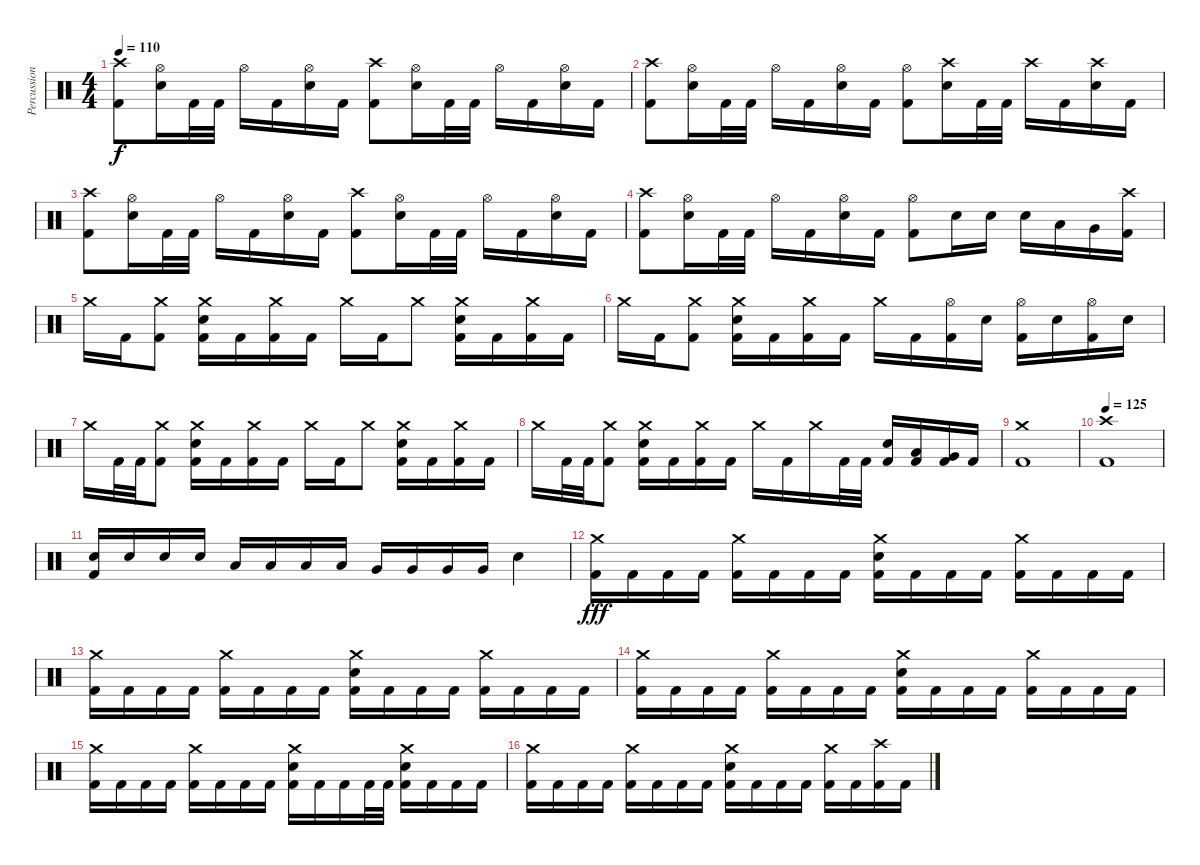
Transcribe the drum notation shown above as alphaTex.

\track ("Percussion" "Percussion") {instrument percussion}
\staff {score}
\articulation defaults
\ts (4 4)
\tempo 110
\clef neutral
\ks c
("Crash high (hit)" "Kick (hit) 2").8{dy f} ("Hi-Hat (open)" "Electric Snare (hit)").16 "Kick (hit) 2".32 "Kick (hit) 2".32 "Hi-Hat (open)".16 "Kick (hit) 2".16 ("Hi-Hat (open)" "Electric Snare (hit)").16 "Kick (hit) 2".16 ("Crash high (hit)" "Kick (hit) 2").8 ("Hi-Hat (open)" "Electric Snare (hit)").16 "Kick (hit) 2".32 "Kick (hit) 2".32 "Hi-Hat (open)".16 "Kick (hit) 2".16 ("Hi-Hat (open)" "Electric Snare (hit)").16 "Kick (hit) 2".16 |
("Crash high (hit)" "Kick (hit) 2").8 ("Hi-Hat (open)" "Electric Snare (hit)").16 "Kick (hit) 2".32 "Kick (hit) 2".32 "Hi-Hat (open)".16 "Kick (hit) 2".16 ("Hi-Hat (open)" "Electric Snare (hit)").16 "Kick (hit) 2".16 ("Hi-Hat (open)" "Kick (hit) 2").8 ("Crash high (hit)" "Electric Snare (hit)").16 "Kick (hit) 2".32 "Kick (hit) 2".32 "Crash high (hit)".16 "Kick (hit) 2".16 ("Crash high (hit)" "Electric Snare (hit)").16 "Kick (hit) 2".16 |
("Crash high (hit)" "Kick (hit) 2").8 ("Hi-Hat (open)" "Electric Snare (hit)").16 "Kick (hit) 2".32 "Kick (hit) 2".32 "Hi-Hat (open)".16 "Kick (hit) 2".16 ("Hi-Hat (open)" "Electric Snare (hit)").16 "Kick (hit) 2".16 ("Crash high (hit)" "Kick (hit) 2").8 ("Hi-Hat (open)" "Electric Snare (hit)").16 "Kick (hit) 2".32 "Kick (hit) 2".32 "Hi-Hat (open)".16 "Kick (hit) 2".16 ("Hi-Hat (open)" "Electric Snare (hit)").16 "Kick (hit) 2".16 |
("Crash high (hit)" "Kick (hit) 2").8 ("Hi-Hat (open)" "Electric Snare (hit)").16 "Kick (hit) 2".32 "Kick (hit) 2".32 "Hi-Hat (open)".16 "Kick (hit) 2".16 ("Hi-Hat (open)" "Electric Snare (hit)").16 "Kick (hit) 2".16 ("Hi-Hat (open)" "Kick (hit) 2").8 "Electric Snare (hit)".16 "Electric Snare (hit)".16 "Electric Snare (hit)".16 "Low Tom (hit)".16 "Very Low Tom (hit)".16 ("Crash high (hit)" "Kick (hit) 2").16 |
"Crash medium (hit)".16 "Kick (hit) 2".16 ("Crash medium (hit)" "Kick (hit) 2").8 ("Crash medium (hit)" "Electric Snare (hit)" "Kick (hit) 2").16 "Kick (hit) 2".16 ("Crash medium (hit)" "Kick (hit) 2").16 "Kick (hit) 2".16 "Crash medium (hit)".16 "Kick (hit) 2".16 "Crash medium (hit)".8 ("Crash medium (hit)" "Electric Snare (hit)" "Kick (hit) 2").16 "Kick (hit) 2".16 ("Crash medium (hit)" "Kick (hit) 2").16 "Kick (hit) 2".16 |
"Crash medium (hit)".16 "Kick (hit) 2".16 ("Crash medium (hit)" "Kick (hit) 2").8 ("Crash medium (hit)" "Electric Snare (hit)" "Kick (hit) 2").16 "Kick (hit) 2".16 ("Crash medium (hit)" "Kick (hit) 2").16 "Kick (hit) 2".16 "Crash medium (hit)".16 "Kick (hit) 2".16 ("Hi-Hat (open)" "Kick (hit) 2").16 "Electric Snare (hit)".16 ("Hi-Hat (open)" "Kick (hit) 2").16 "Electric Snare (hit)".16 ("Hi-Hat (open)" "Kick (hit) 2").16 "Electric Snare (hit)".16 |
"Crash medium (hit)".16 "Kick (hit) 2".32 "Kick (hit) 2".32 ("Crash medium (hit)" "Kick (hit) 2").8 ("Crash medium (hit)" "Electric Snare (hit)" "Kick (hit) 2").16 "Kick (hit) 2".16 ("Crash medium (hit)" "Kick (hit) 2").16 "Kick (hit) 2".16 "Crash medium (hit)".16 "Kick (hit) 2".16 "Crash medium (hit)".8 ("Crash medium (hit)" "Electric Snare (hit)" "Kick (hit) 2").16 "Kick (hit) 2".16 ("Crash medium (hit)" "Kick (hit) 2").16 "Kick (hit) 2".16 |
"Crash medium (hit)".16 "Kick (hit) 2".32 "Kick (hit) 2".32 ("Crash medium (hit)" "Kick (hit) 2").8 ("Crash medium (hit)" "Electric Snare (hit)" "Kick (hit) 2").16 "Kick (hit) 2".16 ("Crash medium (hit)" "Kick (hit) 2").16 "Kick (hit) 2".16 "Crash medium (hit)".16 "Kick (hit) 2".16 "Crash medium (hit)".16 "Kick (hit) 2".32 "Kick (hit) 2".32 ("Electric Snare (hit)" "Kick (hit) 2").16 ("Low Tom (hit)" "Kick (hit) 2").16 ("Very Low Tom (hit)" "Kick (hit) 2").16 "Kick (hit) 2".16 |
("Crash medium (hit)" "Kick (hit) 2").1 |
\tempo 125
("Crash high (hit)" "Kick (hit) 2").1 |
("Electric Snare (hit)" "Kick (hit) 2").16 "Electric Snare (hit)".16 "Electric Snare (hit)".16 "Electric Snare (hit)".16 "Low Tom (hit)".16 "Low Tom (hit)".16 "Low Tom (hit)".16 "Low Tom (hit)".16 "Very Low Tom (hit)".16 "Very Low Tom (hit)".16 "Very Low Tom (hit)".16 "Very Low Tom (hit)".16 "Electric Snare (hit)".4 |
("Crash medium (hit)" "Kick (hit) 2").16{dy fff} "Kick (hit) 2".16 "Kick (hit) 2".16 "Kick (hit) 2".16 ("Crash medium (hit)" "Kick (hit) 2").16 "Kick (hit) 2".16 "Kick (hit) 2".16 "Kick (hit) 2".16 ("Crash medium (hit)" "Electric Snare (hit)" "Kick (hit) 2").16 "Kick (hit) 2".16 "Kick (hit) 2".16 "Kick (hit) 2".16 ("Crash medium (hit)" "Kick (hit) 2").16 "Kick (hit) 2".16 "Kick (hit) 2".16 "Kick (hit) 2".16 |
("Crash medium (hit)" "Kick (hit) 2").16 "Kick (hit) 2".16 "Kick (hit) 2".16 "Kick (hit) 2".16 ("Crash medium (hit)" "Kick (hit) 2").16 "Kick (hit) 2".16 "Kick (hit) 2".16 "Kick (hit) 2".16 ("Crash medium (hit)" "Electric Snare (hit)" "Kick (hit) 2").16 "Kick (hit) 2".16 "Kick (hit) 2".16 "Kick (hit) 2".16 ("Crash medium (hit)" "Kick (hit) 2").16 "Kick (hit) 2".16 "Kick (hit) 2".16 "Kick (hit) 2".16 |
("Crash medium (hit)" "Kick (hit) 2").16 "Kick (hit) 2".16 "Kick (hit) 2".16 "Kick (hit) 2".16 ("Crash medium (hit)" "Kick (hit) 2").16 "Kick (hit) 2".16 "Kick (hit) 2".16 "Kick (hit) 2".16 ("Crash medium (hit)" "Electric Snare (hit)" "Kick (hit) 2").16 "Kick (hit) 2".16 "Kick (hit) 2".16 "Kick (hit) 2".16 ("Crash medium (hit)" "Kick (hit) 2").16 "Kick (hit) 2".16 "Kick (hit) 2".16 "Kick (hit) 2".16 |
("Crash medium (hit)" "Kick (hit) 2").16 "Kick (hit) 2".16 "Kick (hit) 2".16 "Kick (hit) 2".16 ("Crash medium (hit)" "Kick (hit) 2").16 "Kick (hit) 2".16 "Kick (hit) 2".16 "Kick (hit) 2".16 ("Crash medium (hit)" "Electric Snare (hit)" "Kick (hit) 2").16 "Kick (hit) 2".16 "Kick (hit) 2".16 "Kick (hit) 2".32 "Kick (hit) 2".32 ("Crash medium (hit)" "Electric Snare (hit)" "Kick (hit) 2").16 "Kick (hit) 2".16 "Kick (hit) 2".16 "Kick (hit) 2".16 |
("Crash medium (hit)" "Kick (hit) 2").16 "Kick (hit) 2".16 "Kick (hit) 2".16 "Kick (hit) 2".16 ("Crash medium (hit)" "Kick (hit) 2").16 "Kick (hit) 2".16 "Kick (hit) 2".16 "Kick (hit) 2".16 ("Crash medium (hit)" "Electric Snare (hit)" "Kick (hit) 2").16 "Kick (hit) 2".16 "Kick (hit) 2".16 "Kick (hit) 2".16 ("Crash medium (hit)" "Kick (hit) 2").16 "Kick (hit) 2".16 ("Crash high (hit)" "Kick (hit) 2").16 "Kick (hit) 2".16
